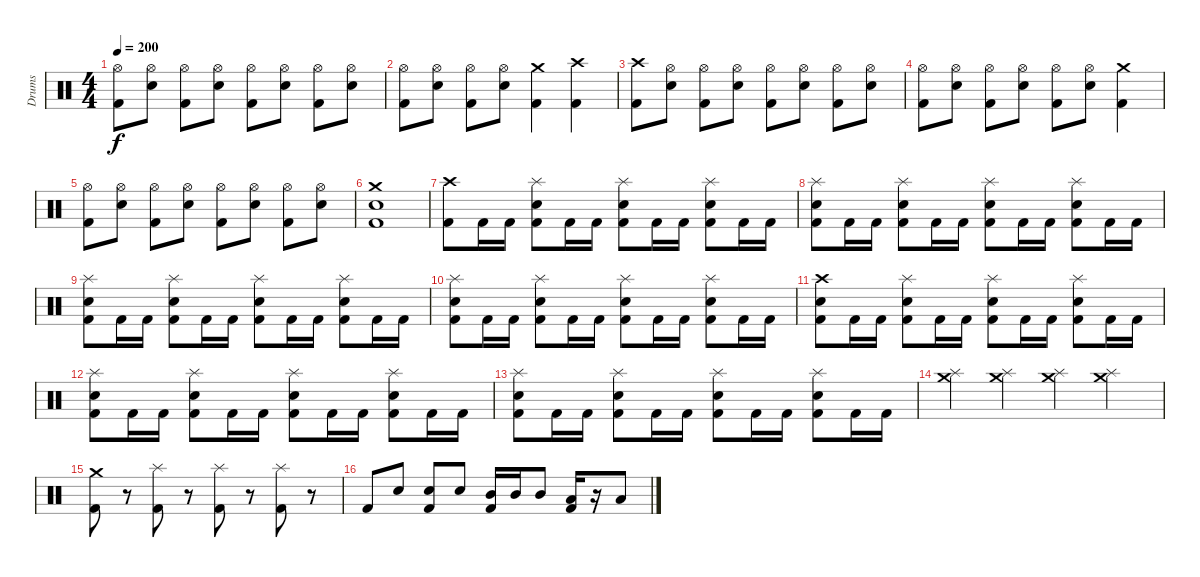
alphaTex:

\track ("Drums" "Drums") {instrument percussion}
\staff {score}
\articulation defaults
\ts (4 4)
\tempo 200
\clef neutral
\ks c
("Hi-Hat (open)" "Kick (hit) 2").8{dy f} ("Hi-Hat (open)" "Electric Snare (hit)").8 ("Hi-Hat (open)" "Kick (hit) 2").8 ("Hi-Hat (open)" "Electric Snare (hit)").8 ("Hi-Hat (open)" "Kick (hit) 2").8 ("Hi-Hat (open)" "Electric Snare (hit)").8 ("Hi-Hat (open)" "Kick (hit) 2").8 ("Hi-Hat (open)" "Electric Snare (hit)").8 |
("Hi-Hat (open)" "Kick (hit) 2").8 ("Hi-Hat (open)" "Electric Snare (hit)").8 ("Hi-Hat (open)" "Kick (hit) 2").8 ("Hi-Hat (open)" "Electric Snare (hit)").8 ("Crash medium (hit)" "Kick (hit) 2").4 ("Crash high (hit)" "Kick (hit) 2").4 |
("Crash high (hit)" "Kick (hit) 2").8 ("Hi-Hat (open)" "Electric Snare (hit)").8 ("Hi-Hat (open)" "Kick (hit) 2").8 ("Hi-Hat (open)" "Electric Snare (hit)").8 ("Hi-Hat (open)" "Kick (hit) 2").8 ("Hi-Hat (open)" "Electric Snare (hit)").8 ("Hi-Hat (open)" "Kick (hit) 2").8 ("Hi-Hat (open)" "Electric Snare (hit)").8 |
("Hi-Hat (open)" "Kick (hit) 2").8 ("Hi-Hat (open)" "Electric Snare (hit)").8 ("Hi-Hat (open)" "Kick (hit) 2").8 ("Hi-Hat (open)" "Electric Snare (hit)").8 ("Hi-Hat (open)" "Kick (hit) 2").8 ("Hi-Hat (open)" "Electric Snare (hit)").8 ("Crash medium (hit)" "Kick (hit) 2").4 |
("Hi-Hat (open)" "Kick (hit) 2").8 ("Hi-Hat (open)" "Electric Snare (hit)").8 ("Hi-Hat (open)" "Kick (hit) 2").8 ("Hi-Hat (open)" "Electric Snare (hit)").8 ("Hi-Hat (open)" "Kick (hit) 2").8 ("Hi-Hat (open)" "Electric Snare (hit)").8 ("Hi-Hat (open)" "Kick (hit) 2").8 ("Hi-Hat (open)" "Electric Snare (hit)").8 |
("Crash medium (hit)" "Electric Snare (hit)" "Kick (hit) 2").1 |
("Crash high (hit)" "Kick (hit) 2").8 "Kick (hit) 2".16 "Kick (hit) 2".16 ("Splash (hit)" "Electric Snare (hit)" "Kick (hit) 2").8 "Kick (hit) 2".16 "Kick (hit) 2".16 ("Splash (hit)" "Electric Snare (hit)" "Kick (hit) 2").8 "Kick (hit) 2".16 "Kick (hit) 2".16 ("Splash (hit)" "Electric Snare (hit)" "Kick (hit) 2").8 "Kick (hit) 2".16 "Kick (hit) 2".16 |
("Splash (hit)" "Electric Snare (hit)" "Kick (hit) 2").8 "Kick (hit) 2".16 "Kick (hit) 2".16 ("Splash (hit)" "Electric Snare (hit)" "Kick (hit) 2").8 "Kick (hit) 2".16 "Kick (hit) 2".16 ("Splash (hit)" "Electric Snare (hit)" "Kick (hit) 2").8 "Kick (hit) 2".16 "Kick (hit) 2".16 ("Splash (hit)" "Electric Snare (hit)" "Kick (hit) 2").8 "Kick (hit) 2".16 "Kick (hit) 2".16 |
("Splash (hit)" "Electric Snare (hit)" "Kick (hit) 2").8 "Kick (hit) 2".16 "Kick (hit) 2".16 ("Splash (hit)" "Electric Snare (hit)" "Kick (hit) 2").8 "Kick (hit) 2".16 "Kick (hit) 2".16 ("Splash (hit)" "Electric Snare (hit)" "Kick (hit) 2").8 "Kick (hit) 2".16 "Kick (hit) 2".16 ("Splash (hit)" "Electric Snare (hit)" "Kick (hit) 2").8 "Kick (hit) 2".16 "Kick (hit) 2".16 |
("Splash (hit)" "Electric Snare (hit)" "Kick (hit) 2").8 "Kick (hit) 2".16 "Kick (hit) 2".16 ("Splash (hit)" "Electric Snare (hit)" "Kick (hit) 2").8 "Kick (hit) 2".16 "Kick (hit) 2".16 ("Splash (hit)" "Electric Snare (hit)" "Kick (hit) 2").8 "Kick (hit) 2".16 "Kick (hit) 2".16 ("Splash (hit)" "Electric Snare (hit)" "Kick (hit) 2").8 "Kick (hit) 2".16 "Kick (hit) 2".16 |
("Crash high (hit)" "Electric Snare (hit)" "Kick (hit) 2").8 "Kick (hit) 2".16 "Kick (hit) 2".16 ("Splash (hit)" "Electric Snare (hit)" "Kick (hit) 2").8 "Kick (hit) 2".16 "Kick (hit) 2".16 ("Splash (hit)" "Electric Snare (hit)" "Kick (hit) 2").8 "Kick (hit) 2".16 "Kick (hit) 2".16 ("Splash (hit)" "Electric Snare (hit)" "Kick (hit) 2").8 "Kick (hit) 2".16 "Kick (hit) 2".16 |
("Splash (hit)" "Electric Snare (hit)" "Kick (hit) 2").8 "Kick (hit) 2".16 "Kick (hit) 2".16 ("Splash (hit)" "Electric Snare (hit)" "Kick (hit) 2").8 "Kick (hit) 2".16 "Kick (hit) 2".16 ("Splash (hit)" "Electric Snare (hit)" "Kick (hit) 2").8 "Kick (hit) 2".16 "Kick (hit) 2".16 ("Splash (hit)" "Electric Snare (hit)" "Kick (hit) 2").8 "Kick (hit) 2".16 "Kick (hit) 2".16 |
("Splash (hit)" "Electric Snare (hit)" "Kick (hit) 2").8 "Kick (hit) 2".16 "Kick (hit) 2".16 ("Splash (hit)" "Electric Snare (hit)" "Kick (hit) 2").8 "Kick (hit) 2".16 "Kick (hit) 2".16 ("Splash (hit)" "Electric Snare (hit)" "Kick (hit) 2").8 "Kick (hit) 2".16 "Kick (hit) 2".16 ("Splash (hit)" "Electric Snare (hit)" "Kick (hit) 2").8 "Kick (hit) 2".16 "Kick (hit) 2".16 |
("Crash medium (hit)" "Splash (hit)").4 ("Crash medium (hit)" "Splash (hit)").4 ("Crash medium (hit)" "Splash (hit)").4 ("Crash medium (hit)" "Splash (hit)").4 |
("Crash medium (hit)" "Kick (hit) 2").8 r.8 ("Splash (hit)" "Kick (hit) 2").8 r.8 ("Splash (hit)" "Kick (hit) 2").8 r.8 ("Splash (hit)" "Kick (hit) 2").8 r.8 |
"Kick (hit) 2".8 "Electric Snare (hit)".8 ("Electric Snare (hit)" "Kick (hit) 2").8 "Electric Snare (hit)".8 ("Mid Tom (hit)" "Kick (hit) 2").16 "Mid Tom (hit)".16 "Mid Tom (hit)".8 ("Low Tom (hit)" "Kick (hit) 2").16 r.16 "Low Tom (hit)".8
